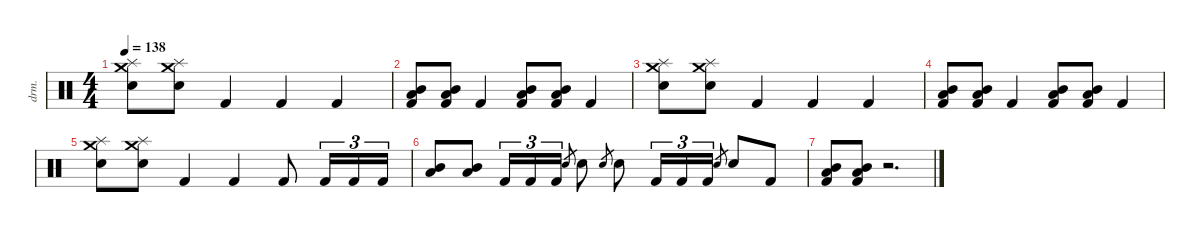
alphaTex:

\defaultSystemsLayout 4
\hideDynamics
\bracketExtendMode nobrackets
\otherSystemsTrackNameOrientation horizontal
\track ("Lee Kerslake" "drm.") {instrument percussion}
\staff {score}
\articulation defaults
\ts (4 4)
\tempo 138
\clef neutral
\ks c
("Snare (hit) 2" "Crash medium (hit)" "Splash (hit)").8{dy f beam Down} ("Snare (hit) 2" "Crash medium (hit)" "Splash (hit)").8{beam Down} "Kick (hit) 2".4{beam Up} "Kick (hit) 2".4{beam Up} "Kick (hit) 2".4{beam Up} |
("Mid Tom (hit)" "Low Tom (hit)" "Kick (hit) 2").8{beam Up} ("Mid Tom (hit)" "Low Tom (hit)" "Kick (hit) 2").8{beam Up} "Kick (hit) 2".4{beam Up} ("Mid Tom (hit)" "Low Tom (hit)" "Kick (hit) 2").8{beam Up} ("Mid Tom (hit)" "Low Tom (hit)" "Kick (hit) 2").8{beam Up} "Kick (hit) 2".4{beam Up} |
("Snare (hit) 2" "Crash medium (hit)" "Splash (hit)").8{beam Down} ("Snare (hit) 2" "Crash medium (hit)" "Splash (hit)").8{beam Down} "Kick (hit) 2".4{beam Up} "Kick (hit) 2".4{beam Up} "Kick (hit) 2".4{beam Up} |
("Mid Tom (hit)" "Low Tom (hit)" "Kick (hit) 2").8{beam Up} ("Mid Tom (hit)" "Low Tom (hit)" "Kick (hit) 2").8{beam Up} "Kick (hit) 2".4{beam Up} ("Mid Tom (hit)" "Low Tom (hit)" "Kick (hit) 2").8{beam Up} ("Mid Tom (hit)" "Low Tom (hit)" "Kick (hit) 2").8{beam Up} "Kick (hit) 2".4{beam Up} |
("Snare (hit) 2" "Crash medium (hit)" "Splash (hit)").8{beam Down} ("Snare (hit) 2" "Crash medium (hit)" "Splash (hit)").8{beam Down} "Kick (hit) 2".4{beam Up} "Kick (hit) 2".4{beam Up} "Kick (hit) 2".8{beam Up} "Kick (hit) 2".16{tu (3 2) beam Up} "Kick (hit) 2".16{tu (3 2) beam Up} "Kick (hit) 2".16{tu (3 2) beam Up} |
("Mid Tom (hit)" "Low Tom (hit)").8{beam Up} ("Mid Tom (hit)" "Low Tom (hit)").8{beam Up} "Kick (hit) 2".16{tu (3 2) beam Up} "Kick (hit) 2".16{tu (3 2) beam Up} "Kick (hit) 2".16{tu (3 2) beam Up} "Snare (hit) 2".8{gr dy mf beam Up} "Snare (hit) 2".8{dy f beam Down} "Snare (hit) 2".8{gr dy mf beam Up} "Snare (hit) 2".8{dy f beam Down} "Kick (hit) 2".16{tu (3 2) beam Up} "Kick (hit) 2".16{tu (3 2) beam Up} "Kick (hit) 2".16{tu (3 2) beam Up} "Snare (hit) 2".8{gr dy mf beam Up} "Snare (hit) 2".8{dy f beam Up} "Kick (hit) 2".8{beam Up} |
("Mid Tom (hit)" "Low Tom (hit)" "Kick (hit) 2").8{beam Up} ("Mid Tom (hit)" "Low Tom (hit)" "Kick (hit) 2").8{beam Up} r.2{d beam Up}
